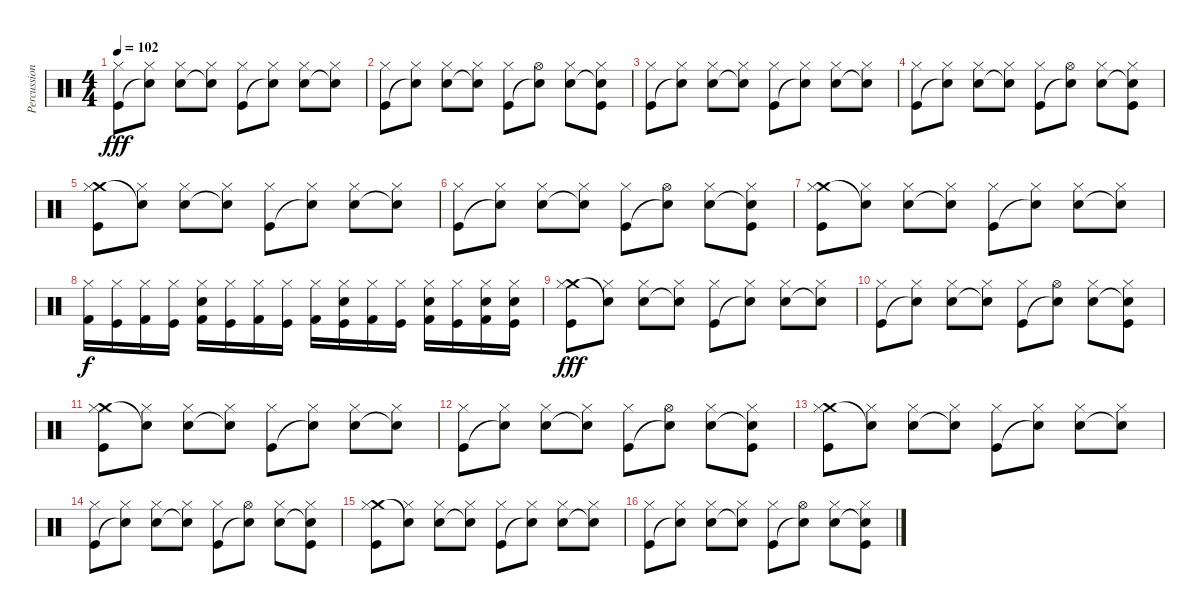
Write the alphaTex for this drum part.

\track ("Percussion" "Percussion") {instrument percussion}
\staff {score}
\articulation defaults
\ts (4 4)
\tempo 102
\clef neutral
\ks aminor
("Hi-Hat (closed)" "Kick (hit)").8{dy fff} ("Hi-Hat (closed)" "Snare (hit)"{t}).8 ("Hi-Hat (closed)" "Electric Snare (hit)").8 ("Hi-Hat (closed)" "Electric Snare (hit)"{t}).8 ("Hi-Hat (closed)" "Kick (hit)").8 ("Hi-Hat (closed)" "Snare (hit)"{t}).8 ("Hi-Hat (closed)" "Electric Snare (hit)").8 ("Hi-Hat (closed)" "Snare (hit)"{t}).8 |
("Hi-Hat (closed)" "Kick (hit)").8 ("Hi-Hat (closed)" "Snare (hit)"{t}).8 ("Hi-Hat (closed)" "Electric Snare (hit)").8 ("Hi-Hat (closed)" "Electric Snare (hit)"{t}).8 ("Hi-Hat (closed)" "Kick (hit)").8 ("Hi-Hat (open)" "Snare (hit)"{t}).8 ("Hi-Hat (closed)" "Electric Snare (hit)").8 ("Hi-Hat (closed)" "Snare (hit)"{t} "Kick (hit)").8 |
("Hi-Hat (closed)" "Kick (hit)").8 ("Hi-Hat (closed)" "Snare (hit)"{t}).8 ("Hi-Hat (closed)" "Electric Snare (hit)").8 ("Hi-Hat (closed)" "Electric Snare (hit)"{t}).8 ("Hi-Hat (closed)" "Kick (hit)").8 ("Hi-Hat (closed)" "Snare (hit)"{t}).8 ("Hi-Hat (closed)" "Electric Snare (hit)").8 ("Hi-Hat (closed)" "Snare (hit)"{t}).8 |
("Hi-Hat (closed)" "Kick (hit)").8 ("Hi-Hat (closed)" "Snare (hit)"{t}).8 ("Hi-Hat (closed)" "Electric Snare (hit)").8 ("Hi-Hat (closed)" "Electric Snare (hit)"{t}).8 ("Hi-Hat (closed)" "Kick (hit)").8 ("Hi-Hat (open)" "Snare (hit)"{t}).8 ("Hi-Hat (closed)" "Electric Snare (hit)").8 ("Hi-Hat (closed)" "Snare (hit)"{t} "Kick (hit)").8 |
("Crash medium (hit)" "Hi-Hat (closed)" "Kick (hit)").8 ("Hi-Hat (closed)" "Snare (hit)"{t}).8 ("Hi-Hat (closed)" "Electric Snare (hit)").8 ("Hi-Hat (closed)" "Electric Snare (hit)"{t}).8 ("Hi-Hat (closed)" "Kick (hit)").8 ("Hi-Hat (closed)" "Snare (hit)"{t}).8 ("Hi-Hat (closed)" "Electric Snare (hit)").8 ("Hi-Hat (closed)" "Snare (hit)"{t}).8 |
("Hi-Hat (closed)" "Kick (hit)").8 ("Hi-Hat (closed)" "Snare (hit)"{t}).8 ("Hi-Hat (closed)" "Electric Snare (hit)").8 ("Hi-Hat (closed)" "Electric Snare (hit)"{t}).8 ("Hi-Hat (closed)" "Kick (hit)").8 ("Hi-Hat (open)" "Snare (hit)"{t}).8 ("Hi-Hat (closed)" "Electric Snare (hit)").8 ("Hi-Hat (closed)" "Snare (hit)"{t} "Kick (hit)").8 |
("Crash medium (hit)" "Hi-Hat (closed)" "Kick (hit)").8 ("Hi-Hat (closed)" "Snare (hit)"{t}).8 ("Hi-Hat (closed)" "Electric Snare (hit)").8 ("Hi-Hat (closed)" "Electric Snare (hit)"{t}).8 ("Hi-Hat (closed)" "Kick (hit)").8 ("Hi-Hat (closed)" "Snare (hit)"{t}).8 ("Hi-Hat (closed)" "Electric Snare (hit)").8 ("Hi-Hat (closed)" "Snare (hit)"{t}).8 |
("Hi-Hat (closed)" "Kick (hit) 2").16{dy f} ("Hi-Hat (closed)" "Kick (hit)").16 ("Hi-Hat (closed)" "Kick (hit) 2").16 ("Hi-Hat (closed)" "Kick (hit)").16 ("Hi-Hat (closed)" "Electric Snare (hit)" "Kick (hit) 2").16 ("Hi-Hat (closed)" "Kick (hit)").16 ("Hi-Hat (closed)" "Kick (hit) 2").16 ("Hi-Hat (closed)" "Kick (hit)").16 ("Hi-Hat (closed)" "Kick (hit) 2").16 ("Hi-Hat (closed)" "Electric Snare (hit)" "Kick (hit)").16 ("Hi-Hat (closed)" "Kick (hit) 2").16 ("Hi-Hat (closed)" "Kick (hit)").16 ("Hi-Hat (closed)" "Electric Snare (hit)" "Kick (hit) 2").16 ("Hi-Hat (closed)" "Kick (hit)").16 ("Hi-Hat (closed)" "Electric Snare (hit)" "Kick (hit) 2").16 ("Hi-Hat (closed)" "Electric Snare (hit)" "Kick (hit)").16 |
("Crash medium (hit)" "Hi-Hat (closed)" "Kick (hit)").8{dy fff} ("Hi-Hat (closed)" "Snare (hit)"{t}).8 ("Hi-Hat (closed)" "Electric Snare (hit)").8 ("Hi-Hat (closed)" "Electric Snare (hit)"{t}).8 ("Hi-Hat (closed)" "Kick (hit)").8 ("Hi-Hat (closed)" "Snare (hit)"{t}).8 ("Hi-Hat (closed)" "Electric Snare (hit)").8 ("Hi-Hat (closed)" "Snare (hit)"{t}).8 |
("Hi-Hat (closed)" "Kick (hit)").8 ("Hi-Hat (closed)" "Snare (hit)"{t}).8 ("Hi-Hat (closed)" "Electric Snare (hit)").8 ("Hi-Hat (closed)" "Electric Snare (hit)"{t}).8 ("Hi-Hat (closed)" "Kick (hit)").8 ("Hi-Hat (open)" "Snare (hit)"{t}).8 ("Hi-Hat (closed)" "Electric Snare (hit)").8 ("Hi-Hat (closed)" "Snare (hit)"{t} "Kick (hit)").8 |
("Crash medium (hit)" "Hi-Hat (closed)" "Kick (hit)").8 ("Hi-Hat (closed)" "Snare (hit)"{t}).8 ("Hi-Hat (closed)" "Electric Snare (hit)").8 ("Hi-Hat (closed)" "Electric Snare (hit)"{t}).8 ("Hi-Hat (closed)" "Kick (hit)").8 ("Hi-Hat (closed)" "Snare (hit)"{t}).8 ("Hi-Hat (closed)" "Electric Snare (hit)").8 ("Hi-Hat (closed)" "Snare (hit)"{t}).8 |
("Hi-Hat (closed)" "Kick (hit)").8 ("Hi-Hat (closed)" "Snare (hit)"{t}).8 ("Hi-Hat (closed)" "Electric Snare (hit)").8 ("Hi-Hat (closed)" "Electric Snare (hit)"{t}).8 ("Hi-Hat (closed)" "Kick (hit)").8 ("Hi-Hat (open)" "Snare (hit)"{t}).8 ("Hi-Hat (closed)" "Electric Snare (hit)").8 ("Hi-Hat (closed)" "Snare (hit)"{t} "Kick (hit)").8 |
("Crash medium (hit)" "Hi-Hat (closed)" "Kick (hit)").8 ("Hi-Hat (closed)" "Snare (hit)"{t}).8 ("Hi-Hat (closed)" "Electric Snare (hit)").8 ("Hi-Hat (closed)" "Electric Snare (hit)"{t}).8 ("Hi-Hat (closed)" "Kick (hit)").8 ("Hi-Hat (closed)" "Snare (hit)"{t}).8 ("Hi-Hat (closed)" "Electric Snare (hit)").8 ("Hi-Hat (closed)" "Snare (hit)"{t}).8 |
("Hi-Hat (closed)" "Kick (hit)").8 ("Hi-Hat (closed)" "Snare (hit)"{t}).8 ("Hi-Hat (closed)" "Electric Snare (hit)").8 ("Hi-Hat (closed)" "Electric Snare (hit)"{t}).8 ("Hi-Hat (closed)" "Kick (hit)").8 ("Hi-Hat (open)" "Snare (hit)"{t}).8 ("Hi-Hat (closed)" "Electric Snare (hit)").8 ("Hi-Hat (closed)" "Snare (hit)"{t} "Kick (hit)").8 |
("Crash medium (hit)" "Hi-Hat (closed)" "Kick (hit)").8 ("Hi-Hat (closed)" "Snare (hit)"{t}).8 ("Hi-Hat (closed)" "Electric Snare (hit)").8 ("Hi-Hat (closed)" "Electric Snare (hit)"{t}).8 ("Hi-Hat (closed)" "Kick (hit)").8 ("Hi-Hat (closed)" "Snare (hit)"{t}).8 ("Hi-Hat (closed)" "Electric Snare (hit)").8 ("Hi-Hat (closed)" "Snare (hit)"{t}).8 |
("Hi-Hat (closed)" "Kick (hit)").8 ("Hi-Hat (closed)" "Snare (hit)"{t}).8 ("Hi-Hat (closed)" "Electric Snare (hit)").8 ("Hi-Hat (closed)" "Electric Snare (hit)"{t}).8 ("Hi-Hat (closed)" "Kick (hit)").8 ("Hi-Hat (open)" "Snare (hit)"{t}).8 ("Hi-Hat (closed)" "Electric Snare (hit)").8 ("Hi-Hat (closed)" "Snare (hit)"{t} "Kick (hit)").8
